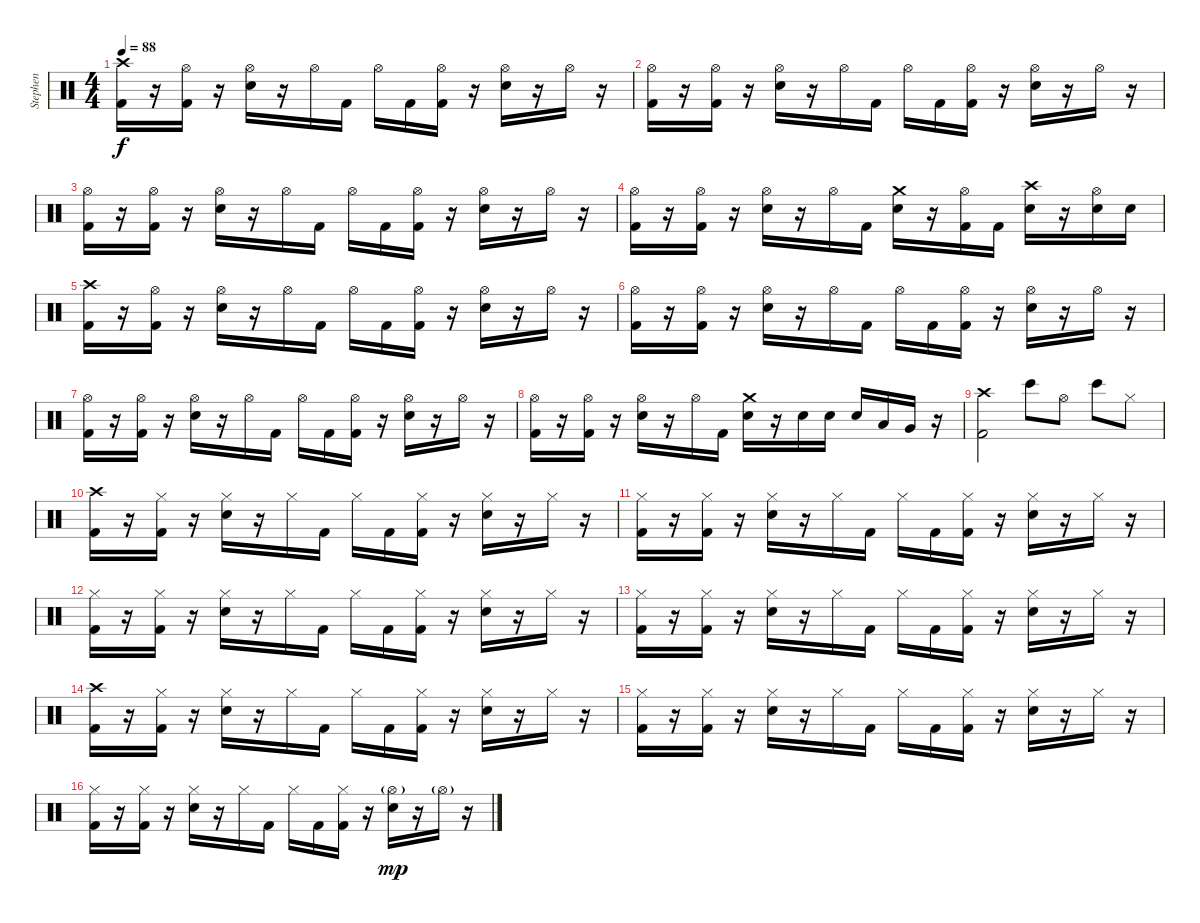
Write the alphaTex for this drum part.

\track ("Stephen" "Stephen") {instrument percussion}
\staff {score}
\articulation defaults
\ts (4 4)
\tempo 88
\clef neutral
\ks c
("Crash high (hit)" "Kick (hit) 2").16{dy f} r.16 ("Hi-Hat (open)" "Kick (hit) 2").16 r.16 ("Hi-Hat (open)" "Electric Snare (hit)").16 r.16 "Hi-Hat (open)".16 "Kick (hit) 2".16 "Hi-Hat (open)".16 "Kick (hit) 2".16 ("Hi-Hat (open)" "Kick (hit) 2").16 r.16 ("Hi-Hat (open)" "Electric Snare (hit)").16 r.16 "Hi-Hat (open)".16 r.16 |
("Hi-Hat (open)" "Kick (hit) 2").16 r.16 ("Hi-Hat (open)" "Kick (hit) 2").16 r.16 ("Hi-Hat (open)" "Electric Snare (hit)").16 r.16 "Hi-Hat (open)".16 "Kick (hit) 2".16 "Hi-Hat (open)".16 "Kick (hit) 2".16 ("Hi-Hat (open)" "Kick (hit) 2").16 r.16 ("Hi-Hat (open)" "Electric Snare (hit)").16 r.16 "Hi-Hat (open)".16 r.16 |
("Hi-Hat (open)" "Kick (hit) 2").16 r.16 ("Hi-Hat (open)" "Kick (hit) 2").16 r.16 ("Hi-Hat (open)" "Electric Snare (hit)").16 r.16 "Hi-Hat (open)".16 "Kick (hit) 2".16 "Hi-Hat (open)".16 "Kick (hit) 2".16 ("Hi-Hat (open)" "Kick (hit) 2").16 r.16 ("Hi-Hat (open)" "Electric Snare (hit)").16 r.16 "Hi-Hat (open)".16 r.16 |
("Hi-Hat (open)" "Kick (hit) 2").16 r.16 ("Hi-Hat (open)" "Kick (hit) 2").16 r.16 ("Hi-Hat (open)" "Electric Snare (hit)").16 r.16 "Hi-Hat (open)".16 "Kick (hit) 2".16 ("Crash medium (hit)" "Electric Snare (hit)").16 r.16 ("Hi-Hat (open)" "Kick (hit) 2").16 "Kick (hit) 2".16 ("Crash high (hit)" "Electric Snare (hit)").16 r.16 ("Hi-Hat (open)" "Electric Snare (hit)").16 "Electric Snare (hit)".16 |
("Crash high (hit)" "Kick (hit) 2").16 r.16 ("Hi-Hat (open)" "Kick (hit) 2").16 r.16 ("Hi-Hat (open)" "Electric Snare (hit)").16 r.16 "Hi-Hat (open)".16 "Kick (hit) 2".16 "Hi-Hat (open)".16 "Kick (hit) 2".16 ("Hi-Hat (open)" "Kick (hit) 2").16 r.16 ("Hi-Hat (open)" "Electric Snare (hit)").16 r.16 "Hi-Hat (open)".16 r.16 |
("Hi-Hat (open)" "Kick (hit) 2").16 r.16 ("Hi-Hat (open)" "Kick (hit) 2").16 r.16 ("Hi-Hat (open)" "Electric Snare (hit)").16 r.16 "Hi-Hat (open)".16 "Kick (hit) 2".16 "Hi-Hat (open)".16 "Kick (hit) 2".16 ("Hi-Hat (open)" "Kick (hit) 2").16 r.16 ("Hi-Hat (open)" "Electric Snare (hit)").16 r.16 "Hi-Hat (open)".16 r.16 |
("Hi-Hat (open)" "Kick (hit) 2").16 r.16 ("Hi-Hat (open)" "Kick (hit) 2").16 r.16 ("Hi-Hat (open)" "Electric Snare (hit)").16 r.16 "Hi-Hat (open)".16 "Kick (hit) 2".16 "Hi-Hat (open)".16 "Kick (hit) 2".16 ("Hi-Hat (open)" "Kick (hit) 2").16 r.16 ("Hi-Hat (open)" "Electric Snare (hit)").16 r.16 "Hi-Hat (open)".16 r.16 |
("Hi-Hat (open)" "Kick (hit) 2").16 r.16 ("Hi-Hat (open)" "Kick (hit) 2").16 r.16 ("Hi-Hat (open)" "Electric Snare (hit)").16 r.16 "Hi-Hat (open)".16 "Kick (hit) 2".16 ("Crash medium (hit)" "Electric Snare (hit)").16 r.16 "Electric Snare (hit)".16 "Electric Snare (hit)".16 "Electric Snare (hit)".16 "Low Tom (hit)".16 "Very Low Tom (hit)".16 r.16 |
("Crash high (hit)" "Kick (hit) 2").2 "Bongo High (hit)".8 "Hi-Hat (open)".8 "Bongo High (hit)".8 "Hi-Hat (closed)".8 |
("Crash high (hit)" "Kick (hit) 2").16 r.16 ("Hi-Hat (closed)" "Kick (hit) 2").16 r.16 ("Hi-Hat (closed)" "Electric Snare (hit)").16 r.16 "Hi-Hat (closed)".16 "Kick (hit) 2".16 "Hi-Hat (closed)".16 "Kick (hit) 2".16 ("Hi-Hat (closed)" "Kick (hit) 2").16 r.16 ("Hi-Hat (closed)" "Electric Snare (hit)").16 r.16 "Hi-Hat (closed)".16 r.16 |
("Hi-Hat (closed)" "Kick (hit) 2").16 r.16 ("Hi-Hat (closed)" "Kick (hit) 2").16 r.16 ("Hi-Hat (closed)" "Electric Snare (hit)").16 r.16 "Hi-Hat (closed)".16 "Kick (hit) 2".16 "Hi-Hat (closed)".16 "Kick (hit) 2".16 ("Hi-Hat (closed)" "Kick (hit) 2").16 r.16 ("Hi-Hat (closed)" "Electric Snare (hit)").16 r.16 "Hi-Hat (closed)".16 r.16 |
("Hi-Hat (closed)" "Kick (hit) 2").16 r.16 ("Hi-Hat (closed)" "Kick (hit) 2").16 r.16 ("Hi-Hat (closed)" "Electric Snare (hit)").16 r.16 "Hi-Hat (closed)".16 "Kick (hit) 2".16 "Hi-Hat (closed)".16 "Kick (hit) 2".16 ("Hi-Hat (closed)" "Kick (hit) 2").16 r.16 ("Hi-Hat (closed)" "Electric Snare (hit)").16 r.16 "Hi-Hat (closed)".16 r.16 |
("Hi-Hat (closed)" "Kick (hit) 2").16 r.16 ("Hi-Hat (closed)" "Kick (hit) 2").16 r.16 ("Hi-Hat (closed)" "Electric Snare (hit)").16 r.16 "Hi-Hat (closed)".16 "Kick (hit) 2".16 "Hi-Hat (closed)".16 "Kick (hit) 2".16 ("Hi-Hat (closed)" "Kick (hit) 2").16 r.16 ("Hi-Hat (closed)" "Electric Snare (hit)").16 r.16 "Hi-Hat (closed)".16 r.16 |
("Crash high (hit)" "Kick (hit) 2").16 r.16 ("Hi-Hat (closed)" "Kick (hit) 2").16 r.16 ("Hi-Hat (closed)" "Electric Snare (hit)").16 r.16 "Hi-Hat (closed)".16 "Kick (hit) 2".16 "Hi-Hat (closed)".16 "Kick (hit) 2".16 ("Hi-Hat (closed)" "Kick (hit) 2").16 r.16 ("Hi-Hat (closed)" "Electric Snare (hit)").16 r.16 "Hi-Hat (closed)".16 r.16 |
("Hi-Hat (closed)" "Kick (hit) 2").16 r.16 ("Hi-Hat (closed)" "Kick (hit) 2").16 r.16 ("Hi-Hat (closed)" "Electric Snare (hit)").16 r.16 "Hi-Hat (closed)".16 "Kick (hit) 2".16 "Hi-Hat (closed)".16 "Kick (hit) 2".16 ("Hi-Hat (closed)" "Kick (hit) 2").16 r.16 ("Hi-Hat (closed)" "Electric Snare (hit)").16 r.16 "Hi-Hat (closed)".16 r.16 |
("Hi-Hat (closed)" "Kick (hit) 2").16 r.16 ("Hi-Hat (closed)" "Kick (hit) 2").16 r.16 ("Hi-Hat (closed)" "Electric Snare (hit)").16 r.16 "Hi-Hat (closed)".16 "Kick (hit) 2".16 "Hi-Hat (closed)".16 "Kick (hit) 2".16 ("Hi-Hat (closed)" "Kick (hit) 2").16 r.16 ("Hi-Hat (open)"{g} "Electric Snare (hit)").16{dy mp} r.16 "Hi-Hat (open)"{g}.16 r.16
